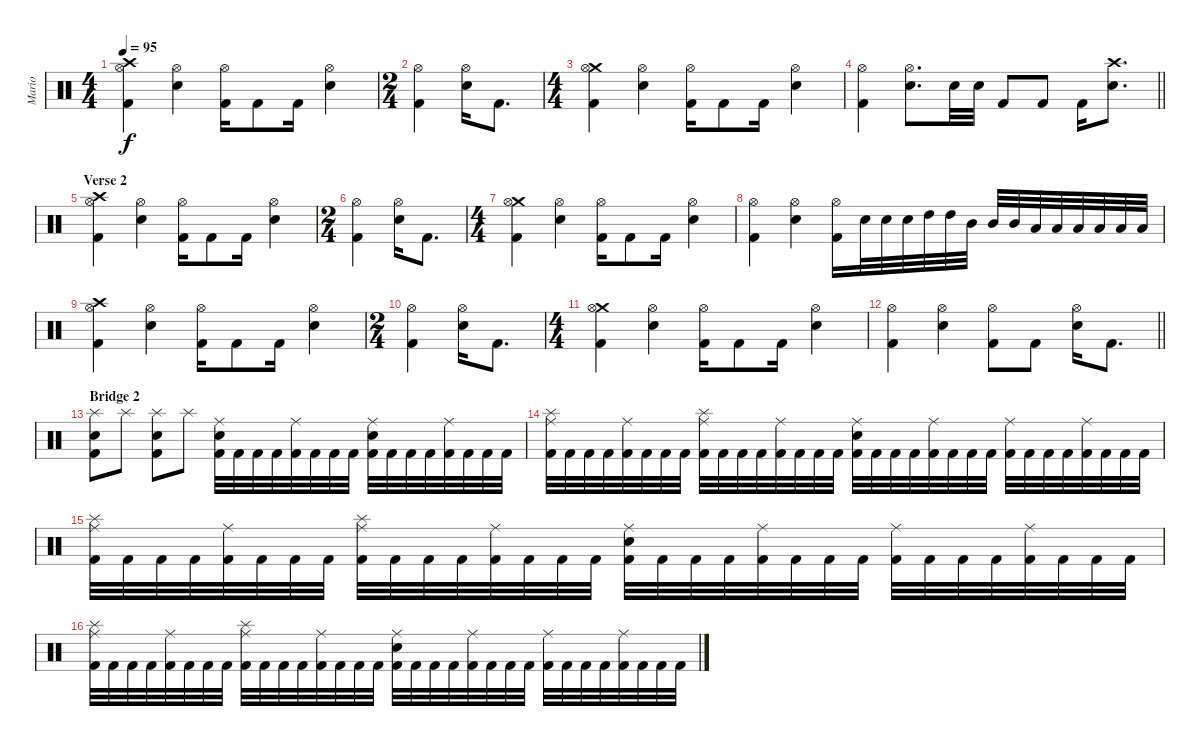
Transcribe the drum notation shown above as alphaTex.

\track ("Mario" "Mario") {instrument percussion}
\staff {score}
\articulation defaults
\ts (4 4)
\tempo 95
\clef neutral
\ks c
("Crash high (hit)" "Hi-Hat (open)" "Kick (hit) 2").4{dy f} ("Hi-Hat (open)" "Electric Snare (hit)").4 ("Hi-Hat (open)" "Kick (hit) 2").16 "Kick (hit) 2".8 "Kick (hit) 2".16 ("Hi-Hat (open)" "Electric Snare (hit)").4 |
\ts (2 4)
("Hi-Hat (open)" "Kick (hit) 2").4 ("Hi-Hat (open)" "Electric Snare (hit)").16 "Kick (hit) 2".8{d} |
\ts (4 4)
("Crash medium (hit)" "Hi-Hat (open)" "Kick (hit) 2").4 ("Hi-Hat (open)" "Electric Snare (hit)").4 ("Hi-Hat (open)" "Kick (hit) 2").16 "Kick (hit) 2".8 "Kick (hit) 2".16 ("Hi-Hat (open)" "Electric Snare (hit)").4 |
\barLineRight lightlight
("Hi-Hat (open)" "Kick (hit) 2").4 ("Hi-Hat (open)" "Electric Snare (hit)").8{d} "Electric Snare (hit)".32 "Electric Snare (hit)".32 "Kick (hit) 2".8 "Kick (hit) 2".8 "Kick (hit) 2".16 ("Crash high (hit)" "Electric Snare (hit)").8{d} |
\section ("" "Verse 2")
("Crash high (hit)" "Hi-Hat (open)" "Kick (hit) 2").4 ("Hi-Hat (open)" "Electric Snare (hit)").4 ("Hi-Hat (open)" "Kick (hit) 2").16 "Kick (hit) 2".8 "Kick (hit) 2".16 ("Hi-Hat (open)" "Electric Snare (hit)").4 |
\ts (2 4)
("Hi-Hat (open)" "Kick (hit) 2").4 ("Hi-Hat (open)" "Electric Snare (hit)").16 "Kick (hit) 2".8{d} |
\ts (4 4)
("Crash medium (hit)" "Hi-Hat (open)" "Kick (hit) 2").4 ("Hi-Hat (open)" "Electric Snare (hit)").4 ("Hi-Hat (open)" "Kick (hit) 2").16 "Kick (hit) 2".8 "Kick (hit) 2".16 ("Hi-Hat (open)" "Electric Snare (hit)").4 |
("Hi-Hat (open)" "Kick (hit) 2").4 ("Hi-Hat (open)" "Electric Snare (hit)").4 ("Hi-Hat (open)" "Kick (hit) 2").16 "Electric Snare (hit)".32 "Electric Snare (hit)".32 "Electric Snare (hit)".32 "High Tom (hit)".32 "High Tom (hit)".32 "Mid Tom (hit)".32 "Mid Tom (hit)".32 "Mid Tom (hit)".32 "Low Tom (hit)".32 "Low Tom (hit)".32 "Low Tom (hit)".32 "Low Tom (hit)".32 "Low Tom (hit)".32 "Low Tom (hit)".32 |
("Crash high (hit)" "Hi-Hat (open)" "Kick (hit) 2").4 ("Hi-Hat (open)" "Electric Snare (hit)").4 ("Hi-Hat (open)" "Kick (hit) 2").16 "Kick (hit) 2".8 "Kick (hit) 2".16 ("Hi-Hat (open)" "Electric Snare (hit)").4 |
\ts (2 4)
("Hi-Hat (open)" "Kick (hit) 2").4 ("Hi-Hat (open)" "Electric Snare (hit)").16 "Kick (hit) 2".8{d} |
\ts (4 4)
("Crash medium (hit)" "Hi-Hat (open)" "Kick (hit) 2").4 ("Hi-Hat (open)" "Electric Snare (hit)").4 ("Hi-Hat (open)" "Kick (hit) 2").16 "Kick (hit) 2".8 "Kick (hit) 2".16 ("Hi-Hat (open)" "Electric Snare (hit)").4 |
\barLineRight lightlight
("Hi-Hat (open)" "Kick (hit) 2").4 ("Hi-Hat (open)" "Electric Snare (hit)").4 ("Hi-Hat (open)" "Kick (hit) 2").8 "Kick (hit) 2".8 ("Hi-Hat (open)" "Electric Snare (hit)").16 "Kick (hit) 2".8{d} |
\section ("" "Bridge 2")
("Splash (hit)" "Electric Snare (hit)" "Kick (hit) 2").8 "Splash (hit)".8 ("Splash (hit)" "Electric Snare (hit)" "Kick (hit) 2").8 "Splash (hit)".8 ("Ride (middle)" "Electric Snare (hit)" "Kick (hit) 2").32 "Kick (hit) 2".32 "Kick (hit) 2".32 "Kick (hit) 2".32 ("Ride (middle)" "Kick (hit) 2").32 "Kick (hit) 2".32 "Kick (hit) 2".32 "Kick (hit) 2".32 ("Ride (middle)" "Electric Snare (hit)" "Kick (hit) 2").32 "Kick (hit) 2".32 "Kick (hit) 2".32 "Kick (hit) 2".32 ("Ride (middle)" "Kick (hit) 2").32 "Kick (hit) 2".32 "Kick (hit) 2".32 "Kick (hit) 2".32 |
("Ride (middle)" "Splash (hit)" "Kick (hit) 2").32 "Kick (hit) 2".32 "Kick (hit) 2".32 "Kick (hit) 2".32 ("Ride (middle)" "Kick (hit) 2").32 "Kick (hit) 2".32 "Kick (hit) 2".32 "Kick (hit) 2".32 ("Ride (middle)" "Splash (hit)" "Kick (hit) 2").32 "Kick (hit) 2".32 "Kick (hit) 2".32 "Kick (hit) 2".32 ("Ride (middle)" "Kick (hit) 2").32 "Kick (hit) 2".32 "Kick (hit) 2".32 "Kick (hit) 2".32 ("Ride (middle)" "Electric Snare (hit)" "Kick (hit) 2").32 "Kick (hit) 2".32 "Kick (hit) 2".32 "Kick (hit) 2".32 ("Ride (middle)" "Kick (hit) 2").32 "Kick (hit) 2".32 "Kick (hit) 2".32 "Kick (hit) 2".32 ("Ride (middle)" "Kick (hit) 2").32 "Kick (hit) 2".32 "Kick (hit) 2".32 "Kick (hit) 2".32 ("Ride (middle)" "Kick (hit) 2").32 "Kick (hit) 2".32 "Kick (hit) 2".32 "Kick (hit) 2".32 |
("Ride (middle)" "Splash (hit)" "Kick (hit) 2").32 "Kick (hit) 2".32 "Kick (hit) 2".32 "Kick (hit) 2".32 ("Ride (middle)" "Kick (hit) 2").32 "Kick (hit) 2".32 "Kick (hit) 2".32 "Kick (hit) 2".32 ("Ride (middle)" "Splash (hit)" "Kick (hit) 2").32 "Kick (hit) 2".32 "Kick (hit) 2".32 "Kick (hit) 2".32 ("Ride (middle)" "Kick (hit) 2").32 "Kick (hit) 2".32 "Kick (hit) 2".32 "Kick (hit) 2".32 ("Ride (middle)" "Electric Snare (hit)" "Kick (hit) 2").32 "Kick (hit) 2".32 "Kick (hit) 2".32 "Kick (hit) 2".32 ("Ride (middle)" "Kick (hit) 2").32 "Kick (hit) 2".32 "Kick (hit) 2".32 "Kick (hit) 2".32 ("Ride (middle)" "Kick (hit) 2").32 "Kick (hit) 2".32 "Kick (hit) 2".32 "Kick (hit) 2".32 ("Ride (middle)" "Kick (hit) 2").32 "Kick (hit) 2".32 "Kick (hit) 2".32 "Kick (hit) 2".32 |
("Ride (middle)" "Splash (hit)" "Kick (hit) 2").32 "Kick (hit) 2".32 "Kick (hit) 2".32 "Kick (hit) 2".32 ("Ride (middle)" "Kick (hit) 2").32 "Kick (hit) 2".32 "Kick (hit) 2".32 "Kick (hit) 2".32 ("Ride (middle)" "Splash (hit)" "Kick (hit) 2").32 "Kick (hit) 2".32 "Kick (hit) 2".32 "Kick (hit) 2".32 ("Ride (middle)" "Kick (hit) 2").32 "Kick (hit) 2".32 "Kick (hit) 2".32 "Kick (hit) 2".32 ("Ride (middle)" "Electric Snare (hit)" "Kick (hit) 2").32 "Kick (hit) 2".32 "Kick (hit) 2".32 "Kick (hit) 2".32 ("Ride (middle)" "Kick (hit) 2").32 "Kick (hit) 2".32 "Kick (hit) 2".32 "Kick (hit) 2".32 ("Ride (middle)" "Kick (hit) 2").32 "Kick (hit) 2".32 "Kick (hit) 2".32 "Kick (hit) 2".32 ("Ride (middle)" "Kick (hit) 2").32 "Kick (hit) 2".32 "Kick (hit) 2".32 "Kick (hit) 2".32
